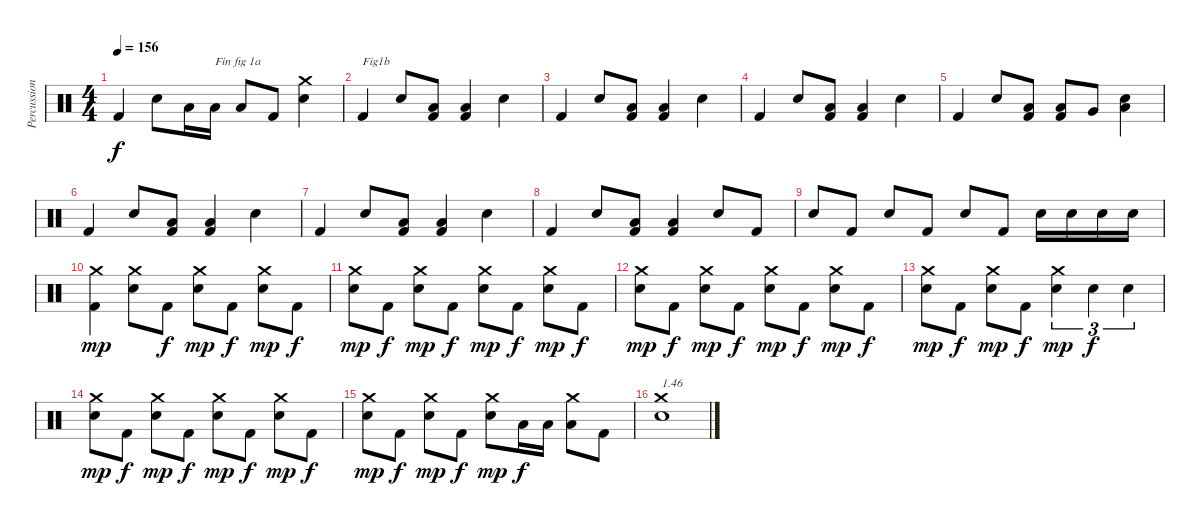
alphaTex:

\track ("Percussions" "Percussion") {instrument percussion}
\staff {score}
\articulation defaults
\ts (4 4)
\tempo 156
\clef neutral
\ks c "Kick (hit) 2".4{dy f} "Electric Snare (hit)".8 "Low Floor Tom (hit)".16 "Low Floor Tom (hit)".16{txt "Fin fig 1a"} "Low Floor Tom (hit)".8 "Kick (hit) 2".8
("Electric Snare (hit)" "Crash medium (hit)").4 |
"Kick (hit) 2".4{txt "Fig1b"} "Electric Snare (hit)".8 ("Kick (hit) 2" "Low Floor Tom (hit)").8 ("Kick (hit) 2" "Low Floor Tom (hit)").4 "Electric Snare (hit)".4 |
"Kick (hit) 2".4 "Electric Snare (hit)".8 ("Kick (hit) 2" "Low Floor Tom (hit)").8 ("Kick (hit) 2" "Low Floor Tom (hit)").4 "Electric Snare (hit)".4 |
"Kick (hit) 2".4 "Electric Snare (hit)".8 ("Kick (hit) 2" "Low Floor Tom (hit)").8 ("Kick (hit) 2" "Low Floor Tom (hit)").4 "Electric Snare (hit)".4 |
"Kick (hit) 2".4 "Electric Snare (hit)".8 ("Kick (hit) 2" "Low Floor Tom (hit)").8 ("Kick (hit) 2" "Low Floor Tom (hit)").8 "Very Low Tom (hit)".8 ("Electric Snare (hit)" "Low Floor Tom (hit)").4 |
"Kick (hit) 2".4 "Electric Snare (hit)".8 ("Kick (hit) 2" "Low Floor Tom (hit)").8 ("Kick (hit) 2" "Low Floor Tom (hit)").4 "Electric Snare (hit)".4 |
"Kick (hit) 2".4 "Electric Snare (hit)".8 ("Kick (hit) 2" "Low Floor Tom (hit)").8 ("Kick (hit) 2" "Low Floor Tom (hit)").4 "Electric Snare (hit)".4 |
"Kick (hit) 2".4 "Electric Snare (hit)".8 ("Kick (hit) 2" "Low Floor Tom (hit)").8 ("Kick (hit) 2" "Low Floor Tom (hit)").4 "Electric Snare (hit)".8 "Kick (hit) 2".8 |
"Electric Snare (hit)".8 "Kick (hit) 2".8 "Electric Snare (hit)".8 "Kick (hit) 2".8 "Electric Snare (hit)".8 "Kick (hit) 2".8 "Electric Snare (hit)".16 "Electric Snare (hit)".16 "Electric Snare (hit)".16 "Electric Snare (hit)".16 |
("Kick (hit) 2" "Crash medium (hit)").4{dy mp} ("Electric Snare (hit)" "Crash medium (hit)").8 "Kick (hit) 2".8{dy f} ("Electric Snare (hit)" "Crash medium (hit)").8{dy mp} "Kick (hit) 2".8{dy f} ("Electric Snare (hit)" "Crash medium (hit)").8{dy mp} "Kick (hit) 2".8{dy f} |
("Electric Snare (hit)" "Crash medium (hit)").8{dy mp} "Kick (hit) 2".8{dy f} ("Electric Snare (hit)" "Crash medium (hit)").8{dy mp} "Kick (hit) 2".8{dy f} ("Electric Snare (hit)" "Crash medium (hit)").8{dy mp} "Kick (hit) 2".8{dy f} ("Electric Snare (hit)" "Crash medium (hit)").8{dy mp} "Kick (hit) 2".8{dy f} |
("Electric Snare (hit)" "Crash medium (hit)").8{dy mp} "Kick (hit) 2".8{dy f} ("Electric Snare (hit)" "Crash medium (hit)").8{dy mp} "Kick (hit) 2".8{dy f} ("Electric Snare (hit)" "Crash medium (hit)").8{dy mp} "Kick (hit) 2".8{dy f} ("Electric Snare (hit)" "Crash medium (hit)").8{dy mp} "Kick (hit) 2".8{dy f} |
("Electric Snare (hit)" "Crash medium (hit)").8{dy mp} "Kick (hit) 2".8{dy f} ("Electric Snare (hit)" "Crash medium (hit)").8{dy mp} "Kick (hit) 2".8{dy f} ("Electric Snare (hit)" "Crash medium (hit)").4{tu (3 2) dy mp} "Electric Snare (hit)".4{tu (3 2) dy f} "Electric Snare (hit)".4{tu (3 2)} |
("Electric Snare (hit)" "Crash medium (hit)").8{dy mp} "Kick (hit) 2".8{dy f} ("Electric Snare (hit)" "Crash medium (hit)").8{dy mp} "Kick (hit) 2".8{dy f} ("Electric Snare (hit)" "Crash medium (hit)").8{dy mp} "Kick (hit) 2".8{dy f} ("Electric Snare (hit)" "Crash medium (hit)").8{dy mp} "Kick (hit) 2".8{dy f} |
("Electric Snare (hit)" "Crash medium (hit)").8{dy mp} "Kick (hit) 2".8{dy f} ("Electric Snare (hit)" "Crash medium (hit)").8{dy mp} "Kick (hit) 2".8{dy f} ("Electric Snare (hit)" "Crash medium (hit)").8{dy mp} "Low Floor Tom (hit)".16{dy f} "Low Floor Tom (hit)".16 ("Low Floor Tom (hit)" "Crash medium (hit)").8 "Kick (hit) 2".8 |
("Electric Snare (hit)" "Crash medium (hit)").1{txt "1.46"}
